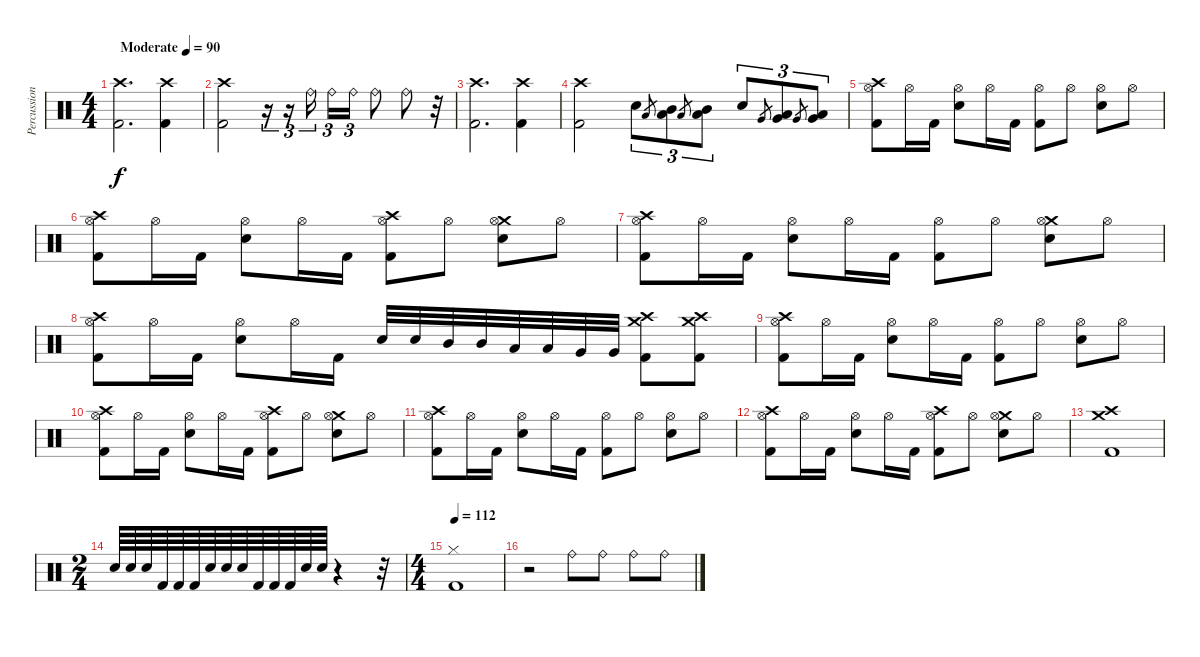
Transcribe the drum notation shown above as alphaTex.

\track ("Percussion" "Percussion") {instrument percussion}
\staff {score}
\articulation defaults
\ts (4 4)
\tempo (90 "Moderate")
\clef neutral
\ks c
("Crash high (hit)" "Kick (hit) 2").2{d dy f} ("Crash high (hit)" "Kick (hit) 2").4 |
("Crash high (hit)" "Kick (hit) 2").2 r.16{tu (3 2)} r.16{tu (3 2)} "Ride (bell)".16{tu (3 2) beam splitsecondary} "Ride (bell)".16{tu (3 2)} "Ride (bell)".16{tu (3 2)} "Ride (bell)".8 "Ride (bell)".8 r.32 |
("Crash high (hit)" "Kick (hit) 2").2{d} ("Crash high (hit)" "Kick (hit) 2").4 |
("Crash high (hit)" "Kick (hit) 2").2 "Snare (hit) 2".8{tu (3 2)} "Low Tom (hit)".8{gr} ("Mid Tom (hit)" "Low Tom (hit)").8{tu (3 2)} "Low Tom (hit)".8{gr} ("Mid Tom (hit)" "Low Tom (hit)").8{tu (3 2)} "Snare (hit) 2".8{tu (3 2)} "Very Low Tom (hit)".8{gr} ("Low Tom (hit)" "Very Low Tom (hit)").8{tu (3 2)} "Very Low Tom (hit)".8{gr} ("Low Tom (hit)" "Very Low Tom (hit)").8{tu (3 2)} |
("Crash high (hit)" "Hi-Hat (open)" "Kick (hit) 2").8 "Hi-Hat (open)".16 "Kick (hit) 2".16 ("Hi-Hat (open)" "Snare (hit) 2").8 "Hi-Hat (open)".16 "Kick (hit) 2".16 ("Hi-Hat (open)" "Kick (hit) 2").8 "Hi-Hat (open)".8 ("Hi-Hat (open)" "Snare (hit) 2").8 "Hi-Hat (open)".8 |
("Crash high (hit)" "Hi-Hat (open)" "Kick (hit) 2").8 "Hi-Hat (open)".16 "Kick (hit) 2".16 ("Hi-Hat (open)" "Snare (hit) 2").8 "Hi-Hat (open)".16 "Kick (hit) 2".16 ("Crash high (hit)" "Hi-Hat (open)" "Kick (hit) 2").8 "Hi-Hat (open)".8 ("Crash medium (hit)" "Hi-Hat (open)" "Snare (hit) 2").8 "Hi-Hat (open)".8 |
("Crash high (hit)" "Hi-Hat (open)" "Kick (hit) 2").8 "Hi-Hat (open)".16 "Kick (hit) 2".16 ("Hi-Hat (open)" "Snare (hit) 2").8 "Hi-Hat (open)".16 "Kick (hit) 2".16 ("Hi-Hat (open)" "Kick (hit) 2").8 "Hi-Hat (open)".8 ("Crash medium (hit)" "Hi-Hat (open)" "Snare (hit) 2").8 "Hi-Hat (open)".8 |
("Crash high (hit)" "Hi-Hat (open)" "Kick (hit) 2").8 "Hi-Hat (open)".16 "Kick (hit) 2".16 ("Hi-Hat (open)" "Snare (hit) 2").8 "Hi-Hat (open)".16 "Kick (hit) 2".16 "Snare (hit) 2".32 "Snare (hit) 2".32 "Mid Tom (hit)".32 "Mid Tom (hit)".32 "Low Tom (hit)".32 "Low Tom (hit)".32 "Very Low Tom (hit)".32 "Very Low Tom (hit)".32 ("Crash medium (hit)" "Crash high (hit)" "Kick (hit) 2").8 ("Crash medium (hit)" "Crash high (hit)" "Kick (hit) 2").8 |
("Crash high (hit)" "Hi-Hat (open)" "Kick (hit) 2").8 "Hi-Hat (open)".16 "Kick (hit) 2".16 ("Hi-Hat (open)" "Snare (hit) 2").8 "Hi-Hat (open)".16 "Kick (hit) 2".16 ("Hi-Hat (open)" "Kick (hit) 2").8 "Hi-Hat (open)".8 ("Hi-Hat (open)" "Snare (hit) 2").8 "Hi-Hat (open)".8 |
("Crash high (hit)" "Hi-Hat (open)" "Kick (hit) 2").8 "Hi-Hat (open)".16 "Kick (hit) 2".16 ("Hi-Hat (open)" "Snare (hit) 2").8 "Hi-Hat (open)".16 "Kick (hit) 2".16 ("Crash high (hit)" "Hi-Hat (open)" "Kick (hit) 2").8 "Hi-Hat (open)".8 ("Crash medium (hit)" "Hi-Hat (open)" "Snare (hit) 2").8 "Hi-Hat (open)".8 |
("Crash high (hit)" "Hi-Hat (open)" "Kick (hit) 2").8 "Hi-Hat (open)".16 "Kick (hit) 2".16 ("Hi-Hat (open)" "Snare (hit) 2").8 "Hi-Hat (open)".16 "Kick (hit) 2".16 ("Hi-Hat (open)" "Kick (hit) 2").8 "Hi-Hat (open)".8 ("Hi-Hat (open)" "Snare (hit) 2").8 "Hi-Hat (open)".8 |
("Crash high (hit)" "Hi-Hat (open)" "Kick (hit) 2").8 "Hi-Hat (open)".16 "Kick (hit) 2".16 ("Hi-Hat (open)" "Snare (hit) 2").8 "Hi-Hat (open)".16 "Kick (hit) 2".16 ("Crash high (hit)" "Hi-Hat (open)" "Kick (hit) 2").8 "Hi-Hat (open)".8 ("Crash medium (hit)" "Hi-Hat (open)" "Snare (hit) 2").8 "Hi-Hat (open)".8 |
("Crash high (hit)" "Crash medium (hit)" "Kick (hit) 2").1 |
\ts (2 4)
"Snare (hit) 2".64 "Snare (hit) 2".64 "Snare (hit) 2".64 "Kick (hit) 2".64 "Kick (hit) 2".64 "Kick (hit) 2".64 "Snare (hit) 2".64 "Snare (hit) 2".64 "Snare (hit) 2".64 "Kick (hit) 2".64 "Kick (hit) 2".64 "Kick (hit) 2".64 "Snare (hit) 2".64 "Snare (hit) 2".64 r.4 r.32 |
\ts (4 4)
\tempo 112
("Hi-Hat (closed)" "Kick (hit) 2").1 |
r.2 "Ride (bell)".8 "Ride (bell)".8 "Ride (bell)".8 "Ride (bell)".8
